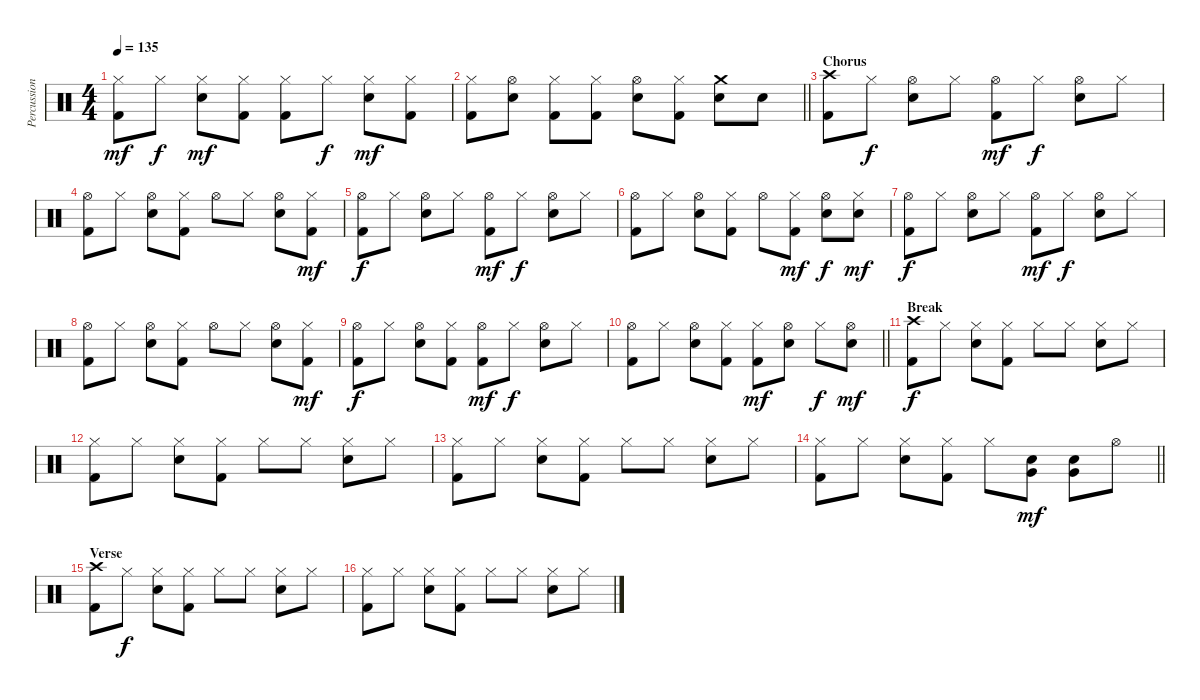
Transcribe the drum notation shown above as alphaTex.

\track ("Percussion" "Percussion") {instrument percussion}
\staff {score}
\articulation defaults
\ts (4 4)
\tempo 135
\clef neutral
\ks c
("Hi-Hat (closed)" "Kick (hit) 2").8{dy mf} "Hi-Hat (closed)".8{dy f} ("Hi-Hat (closed)" "Electric Snare (hit)").8{dy mf} ("Hi-Hat (closed)" "Kick (hit) 2").8 ("Hi-Hat (closed)" "Kick (hit) 2").8 "Hi-Hat (closed)".8{dy f} ("Hi-Hat (closed)" "Electric Snare (hit)").8{dy mf} ("Hi-Hat (closed)" "Kick (hit) 2").8 |
\barLineRight lightlight
("Hi-Hat (closed)" "Kick (hit) 2").8 ("Hi-Hat (open)" "Electric Snare (hit)").8 ("Hi-Hat (closed)" "Kick (hit) 2").8 ("Hi-Hat (closed)" "Kick (hit) 2").8 ("Hi-Hat (open)" "Electric Snare (hit)").8 ("Hi-Hat (closed)" "Kick (hit) 2").8 ("Crash medium (hit)" "Electric Snare (hit)").8 "Electric Snare (hit)".8 |
\section ("" "Chorus")
("Crash high (hit)" "Kick (hit) 2").8 "Hi-Hat (closed)".8{dy f} ("Hi-Hat (open)" "Electric Snare (hit)").8 "Hi-Hat (closed)".8 ("Hi-Hat (open)" "Kick (hit) 2").8{dy mf} "Hi-Hat (closed)".8{dy f} ("Hi-Hat (open)" "Electric Snare (hit)").8 "Hi-Hat (closed)".8 |
("Hi-Hat (open)" "Kick (hit) 2").8 "Hi-Hat (closed)".8 ("Hi-Hat (open)" "Electric Snare (hit)").8 ("Hi-Hat (closed)" "Kick (hit) 2").8 "Hi-Hat (open)".8 "Hi-Hat (closed)".8 ("Hi-Hat (open)" "Electric Snare (hit)").8 ("Hi-Hat (closed)" "Kick (hit) 2").8{dy mf} |
("Hi-Hat (open)" "Kick (hit) 2").8{dy f} "Hi-Hat (closed)".8 ("Hi-Hat (open)" "Electric Snare (hit)").8 "Hi-Hat (closed)".8 ("Hi-Hat (open)" "Kick (hit) 2").8{dy mf} "Hi-Hat (closed)".8{dy f} ("Hi-Hat (open)" "Electric Snare (hit)").8 "Hi-Hat (closed)".8 |
("Hi-Hat (open)" "Kick (hit) 2").8 "Hi-Hat (closed)".8 ("Hi-Hat (open)" "Electric Snare (hit)").8 ("Hi-Hat (closed)" "Kick (hit) 2").8 "Hi-Hat (open)".8 ("Hi-Hat (closed)" "Kick (hit) 2").8{dy mf} ("Hi-Hat (open)" "Electric Snare (hit)").8{dy f} ("Hi-Hat (closed)" "Electric Snare (hit)").8{dy mf} |
("Hi-Hat (open)" "Kick (hit) 2").8{dy f} "Hi-Hat (closed)".8 ("Hi-Hat (open)" "Electric Snare (hit)").8 "Hi-Hat (closed)".8 ("Hi-Hat (open)" "Kick (hit) 2").8{dy mf} "Hi-Hat (closed)".8{dy f} ("Hi-Hat (open)" "Electric Snare (hit)").8 "Hi-Hat (closed)".8 |
("Hi-Hat (open)" "Kick (hit) 2").8 "Hi-Hat (closed)".8 ("Hi-Hat (open)" "Electric Snare (hit)").8 ("Hi-Hat (closed)" "Kick (hit) 2").8 "Hi-Hat (open)".8 "Hi-Hat (closed)".8 ("Hi-Hat (open)" "Electric Snare (hit)").8 ("Hi-Hat (closed)" "Kick (hit) 2").8{dy mf} |
("Hi-Hat (open)" "Kick (hit) 2").8{dy f} "Hi-Hat (closed)".8 ("Hi-Hat (open)" "Electric Snare (hit)").8 ("Hi-Hat (closed)" "Kick (hit) 2").8 ("Hi-Hat (open)" "Kick (hit) 2").8{dy mf} "Hi-Hat (closed)".8{dy f} ("Hi-Hat (open)" "Electric Snare (hit)").8 "Hi-Hat (closed)".8 |
\barLineRight lightlight
("Hi-Hat (open)" "Kick (hit) 2").8 "Hi-Hat (closed)".8 ("Hi-Hat (open)" "Electric Snare (hit)").8 ("Hi-Hat (closed)" "Kick (hit) 2").8 ("Hi-Hat (closed)" "Kick (hit) 2").8{dy mf} ("Hi-Hat (open)" "Electric Snare (hit)").8 "Hi-Hat (closed)".8{dy f} ("Hi-Hat (open)" "Electric Snare (hit)").8{dy mf} |
\section ("" "Break")
("Crash high (hit)" "Kick (hit) 2").8{dy f} "Hi-Hat (closed)".8 ("Hi-Hat (closed)" "Electric Snare (hit)").8 ("Hi-Hat (closed)" "Kick (hit) 2").8 "Hi-Hat (closed)".8 "Hi-Hat (closed)".8 ("Hi-Hat (closed)" "Electric Snare (hit)").8 "Hi-Hat (closed)".8 |
("Hi-Hat (closed)" "Kick (hit) 2").8 "Hi-Hat (closed)".8 ("Hi-Hat (closed)" "Electric Snare (hit)").8 ("Hi-Hat (closed)" "Kick (hit) 2").8 "Hi-Hat (closed)".8 "Hi-Hat (closed)".8 ("Hi-Hat (closed)" "Electric Snare (hit)").8 "Hi-Hat (closed)".8 |
("Hi-Hat (closed)" "Kick (hit) 2").8 "Hi-Hat (closed)".8 ("Hi-Hat (closed)" "Electric Snare (hit)").8 ("Hi-Hat (closed)" "Kick (hit) 2").8 "Hi-Hat (closed)".8 "Hi-Hat (closed)".8 ("Hi-Hat (closed)" "Electric Snare (hit)").8 "Hi-Hat (closed)".8 |
\barLineRight lightlight
("Hi-Hat (closed)" "Kick (hit) 2").8 "Hi-Hat (closed)".8 ("Hi-Hat (closed)" "Electric Snare (hit)").8 ("Hi-Hat (closed)" "Kick (hit) 2").8 "Hi-Hat (closed)".8 ("Very Low Tom (hit)" "Electric Snare (hit)").8{dy mf} ("Very Low Tom (hit)" "Electric Snare (hit)").8 "Hi-Hat (open)".8 |
\section ("" "Verse")
("Crash high (hit)" "Kick (hit) 2").8 "Hi-Hat (closed)".8{dy f} ("Hi-Hat (closed)" "Electric Snare (hit)").8 ("Hi-Hat (closed)" "Kick (hit) 2").8 "Hi-Hat (closed)".8 "Hi-Hat (closed)".8 ("Hi-Hat (closed)" "Electric Snare (hit)").8 "Hi-Hat (closed)".8 |
("Hi-Hat (closed)" "Kick (hit) 2").8 "Hi-Hat (closed)".8 ("Hi-Hat (closed)" "Electric Snare (hit)").8 ("Hi-Hat (closed)" "Kick (hit) 2").8 "Hi-Hat (closed)".8 "Hi-Hat (closed)".8 ("Hi-Hat (closed)" "Electric Snare (hit)").8 "Hi-Hat (closed)".8
